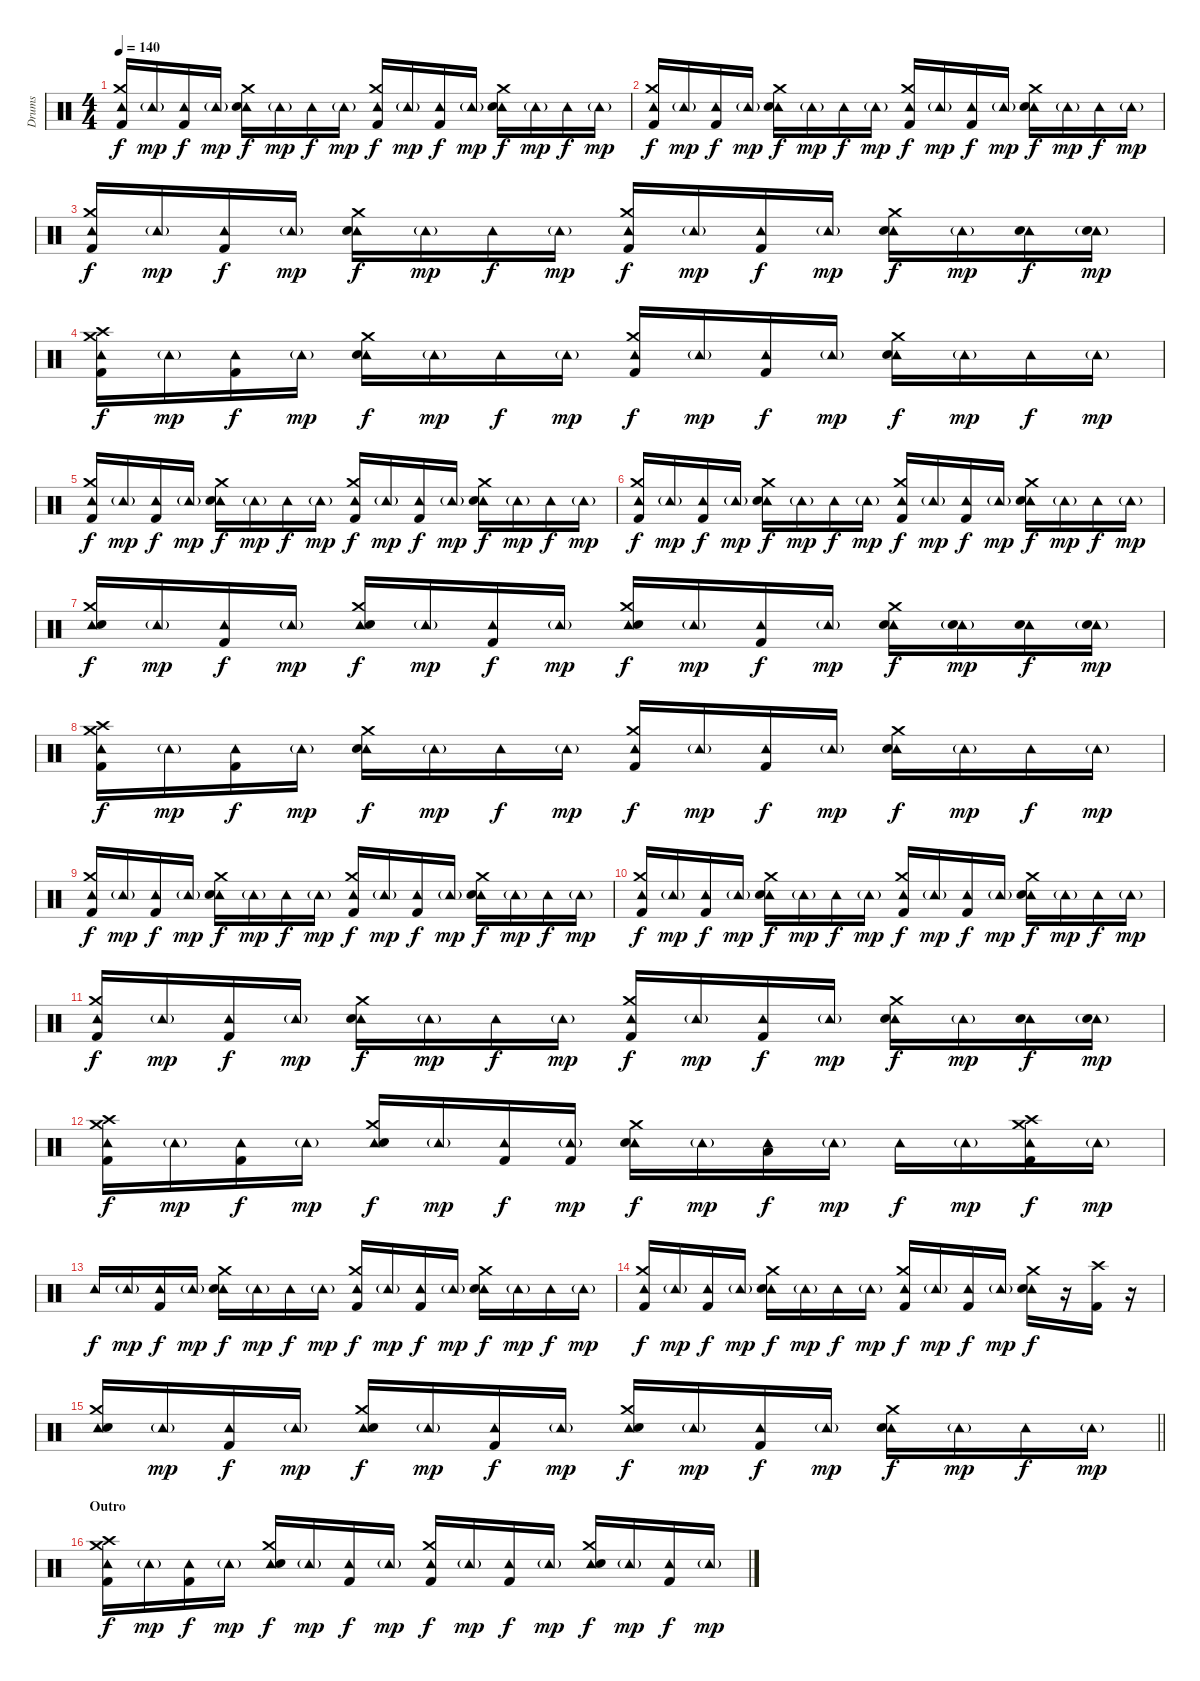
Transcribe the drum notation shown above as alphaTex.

\track ("Drums" "Drums") {instrument percussion}
\staff {score}
\articulation defaults
\ts (4 4)
\tempo 140
\clef neutral
\ks c
("Tambourine (hit)" "Crash medium (hit)" "Kick (hit) 2").16{dy f} "Tambourine (hit)"{g}.16{dy mp} ("Tambourine (hit)" "Kick (hit) 2").16{dy f} "Tambourine (hit)"{g}.16{dy mp} ("Tambourine (hit)" "Crash medium (hit)" "Electric Snare (hit)").16{dy f} "Tambourine (hit)"{g}.16{dy mp} "Tambourine (hit)".16{dy f} "Tambourine (hit)"{g}.16{dy mp} ("Tambourine (hit)" "Crash medium (hit)" "Kick (hit) 2").16{dy f} "Tambourine (hit)"{g}.16{dy mp} ("Tambourine (hit)" "Kick (hit) 2").16{dy f} "Tambourine (hit)"{g}.16{dy mp} ("Tambourine (hit)" "Crash medium (hit)" "Electric Snare (hit)").16{dy f} "Tambourine (hit)"{g}.16{dy mp} "Tambourine (hit)".16{dy f} "Tambourine (hit)"{g}.16{dy mp} |
("Tambourine (hit)" "Crash medium (hit)" "Kick (hit) 2").16{dy f} "Tambourine (hit)"{g}.16{dy mp} ("Tambourine (hit)" "Kick (hit) 2").16{dy f} "Tambourine (hit)"{g}.16{dy mp} ("Tambourine (hit)" "Crash medium (hit)" "Electric Snare (hit)").16{dy f} "Tambourine (hit)"{g}.16{dy mp} "Tambourine (hit)".16{dy f} "Tambourine (hit)"{g}.16{dy mp} ("Tambourine (hit)" "Crash medium (hit)" "Kick (hit) 2").16{dy f} "Tambourine (hit)"{g}.16{dy mp} ("Tambourine (hit)" "Kick (hit) 2").16{dy f} "Tambourine (hit)"{g}.16{dy mp} ("Tambourine (hit)" "Crash medium (hit)" "Electric Snare (hit)").16{dy f} "Tambourine (hit)"{g}.16{dy mp} "Tambourine (hit)".16{dy f} "Tambourine (hit)"{g}.16{dy mp} |
("Tambourine (hit)" "Crash medium (hit)" "Kick (hit) 2").16{dy f} "Tambourine (hit)"{g}.16{dy mp} ("Tambourine (hit)" "Kick (hit) 2").16{dy f} "Tambourine (hit)"{g}.16{dy mp} ("Tambourine (hit)" "Crash medium (hit)" "Electric Snare (hit)").16{dy f} "Tambourine (hit)"{g}.16{dy mp} "Tambourine (hit)".16{dy f} "Tambourine (hit)"{g}.16{dy mp} ("Tambourine (hit)" "Crash medium (hit)" "Kick (hit) 2").16{dy f} "Tambourine (hit)"{g}.16{dy mp} ("Tambourine (hit)" "Kick (hit) 2").16{dy f} "Tambourine (hit)"{g}.16{dy mp} ("Tambourine (hit)" "Crash medium (hit)" "Electric Snare (hit)").16{dy f} "Tambourine (hit)"{g}.16{dy mp} ("Tambourine (hit)" "Electric Snare (hit)").16{dy f} ("Tambourine (hit)"{g} "Electric Snare (hit)").16{dy mp} |
("Tambourine (hit)" "Crash high (hit)" "Crash medium (hit)" "Kick (hit) 2").16{dy f} "Tambourine (hit)"{g}.16{dy mp} ("Tambourine (hit)" "Kick (hit) 2").16{dy f} "Tambourine (hit)"{g}.16{dy mp} ("Tambourine (hit)" "Crash medium (hit)" "Electric Snare (hit)").16{dy f} "Tambourine (hit)"{g}.16{dy mp} "Tambourine (hit)".16{dy f} "Tambourine (hit)"{g}.16{dy mp} ("Tambourine (hit)" "Crash medium (hit)" "Kick (hit) 2").16{dy f} "Tambourine (hit)"{g}.16{dy mp} ("Tambourine (hit)" "Kick (hit) 2").16{dy f} "Tambourine (hit)"{g}.16{dy mp} ("Tambourine (hit)" "Crash medium (hit)" "Electric Snare (hit)").16{dy f} "Tambourine (hit)"{g}.16{dy mp} "Tambourine (hit)".16{dy f} "Tambourine (hit)"{g}.16{dy mp} |
("Tambourine (hit)" "Crash medium (hit)" "Kick (hit) 2").16{dy f} "Tambourine (hit)"{g}.16{dy mp} ("Tambourine (hit)" "Kick (hit) 2").16{dy f} "Tambourine (hit)"{g}.16{dy mp} ("Tambourine (hit)" "Crash medium (hit)" "Electric Snare (hit)").16{dy f} "Tambourine (hit)"{g}.16{dy mp} "Tambourine (hit)".16{dy f} "Tambourine (hit)"{g}.16{dy mp} ("Tambourine (hit)" "Crash medium (hit)" "Kick (hit) 2").16{dy f} "Tambourine (hit)"{g}.16{dy mp} ("Tambourine (hit)" "Kick (hit) 2").16{dy f} "Tambourine (hit)"{g}.16{dy mp} ("Tambourine (hit)" "Crash medium (hit)" "Electric Snare (hit)").16{dy f} "Tambourine (hit)"{g}.16{dy mp} "Tambourine (hit)".16{dy f} "Tambourine (hit)"{g}.16{dy mp} |
("Tambourine (hit)" "Crash medium (hit)" "Kick (hit) 2").16{dy f} "Tambourine (hit)"{g}.16{dy mp} ("Tambourine (hit)" "Kick (hit) 2").16{dy f} "Tambourine (hit)"{g}.16{dy mp} ("Tambourine (hit)" "Crash medium (hit)" "Electric Snare (hit)").16{dy f} "Tambourine (hit)"{g}.16{dy mp} "Tambourine (hit)".16{dy f} "Tambourine (hit)"{g}.16{dy mp} ("Tambourine (hit)" "Crash medium (hit)" "Kick (hit) 2").16{dy f} "Tambourine (hit)"{g}.16{dy mp} ("Tambourine (hit)" "Kick (hit) 2").16{dy f} "Tambourine (hit)"{g}.16{dy mp} ("Tambourine (hit)" "Crash medium (hit)" "Electric Snare (hit)").16{dy f} "Tambourine (hit)"{g}.16{dy mp} "Tambourine (hit)".16{dy f} "Tambourine (hit)"{g}.16{dy mp} |
("Tambourine (hit)" "Crash medium (hit)" "Electric Snare (hit)").16{dy f} "Tambourine (hit)"{g}.16{dy mp} ("Tambourine (hit)" "Kick (hit) 2").16{dy f} "Tambourine (hit)"{g}.16{dy mp} ("Tambourine (hit)" "Crash medium (hit)" "Electric Snare (hit)").16{dy f} "Tambourine (hit)"{g}.16{dy mp} ("Tambourine (hit)" "Kick (hit) 2").16{dy f} "Tambourine (hit)"{g}.16{dy mp} ("Tambourine (hit)" "Crash medium (hit)" "Electric Snare (hit)").16{dy f} "Tambourine (hit)"{g}.16{dy mp} ("Tambourine (hit)" "Kick (hit) 2").16{dy f} "Tambourine (hit)"{g}.16{dy mp} ("Tambourine (hit)" "Crash medium (hit)" "Electric Snare (hit)").16{dy f} ("Tambourine (hit)"{g} "Electric Snare (hit)").16{dy mp} ("Tambourine (hit)" "Electric Snare (hit)").16{dy f} ("Tambourine (hit)"{g} "Electric Snare (hit)").16{dy mp} |
("Tambourine (hit)" "Crash high (hit)" "Crash medium (hit)" "Kick (hit) 2").16{dy f} "Tambourine (hit)"{g}.16{dy mp} ("Tambourine (hit)" "Kick (hit) 2").16{dy f} "Tambourine (hit)"{g}.16{dy mp} ("Tambourine (hit)" "Crash medium (hit)" "Electric Snare (hit)").16{dy f} "Tambourine (hit)"{g}.16{dy mp} "Tambourine (hit)".16{dy f} "Tambourine (hit)"{g}.16{dy mp} ("Tambourine (hit)" "Crash medium (hit)" "Kick (hit) 2").16{dy f} "Tambourine (hit)"{g}.16{dy mp} ("Tambourine (hit)" "Kick (hit) 2").16{dy f} "Tambourine (hit)"{g}.16{dy mp} ("Tambourine (hit)" "Crash medium (hit)" "Electric Snare (hit)").16{dy f} "Tambourine (hit)"{g}.16{dy mp} "Tambourine (hit)".16{dy f} "Tambourine (hit)"{g}.16{dy mp} |
("Tambourine (hit)" "Crash medium (hit)" "Kick (hit) 2").16{dy f} "Tambourine (hit)"{g}.16{dy mp} ("Tambourine (hit)" "Kick (hit) 2").16{dy f} "Tambourine (hit)"{g}.16{dy mp} ("Tambourine (hit)" "Crash medium (hit)" "Electric Snare (hit)").16{dy f} "Tambourine (hit)"{g}.16{dy mp} "Tambourine (hit)".16{dy f} "Tambourine (hit)"{g}.16{dy mp} ("Tambourine (hit)" "Crash medium (hit)" "Kick (hit) 2").16{dy f} "Tambourine (hit)"{g}.16{dy mp} ("Tambourine (hit)" "Kick (hit) 2").16{dy f} "Tambourine (hit)"{g}.16{dy mp} ("Tambourine (hit)" "Crash medium (hit)" "Electric Snare (hit)").16{dy f} "Tambourine (hit)"{g}.16{dy mp} "Tambourine (hit)".16{dy f} "Tambourine (hit)"{g}.16{dy mp} |
("Tambourine (hit)" "Crash medium (hit)" "Kick (hit) 2").16{dy f} "Tambourine (hit)"{g}.16{dy mp} ("Tambourine (hit)" "Kick (hit) 2").16{dy f} "Tambourine (hit)"{g}.16{dy mp} ("Tambourine (hit)" "Crash medium (hit)" "Electric Snare (hit)").16{dy f} "Tambourine (hit)"{g}.16{dy mp} "Tambourine (hit)".16{dy f} "Tambourine (hit)"{g}.16{dy mp} ("Tambourine (hit)" "Crash medium (hit)" "Kick (hit) 2").16{dy f} "Tambourine (hit)"{g}.16{dy mp} ("Tambourine (hit)" "Kick (hit) 2").16{dy f} "Tambourine (hit)"{g}.16{dy mp} ("Tambourine (hit)" "Crash medium (hit)" "Electric Snare (hit)").16{dy f} "Tambourine (hit)"{g}.16{dy mp} "Tambourine (hit)".16{dy f} "Tambourine (hit)"{g}.16{dy mp} |
("Tambourine (hit)" "Crash medium (hit)" "Kick (hit) 2").16{dy f} "Tambourine (hit)"{g}.16{dy mp} ("Tambourine (hit)" "Kick (hit) 2").16{dy f} "Tambourine (hit)"{g}.16{dy mp} ("Tambourine (hit)" "Crash medium (hit)" "Electric Snare (hit)").16{dy f} "Tambourine (hit)"{g}.16{dy mp} "Tambourine (hit)".16{dy f} "Tambourine (hit)"{g}.16{dy mp} ("Tambourine (hit)" "Crash medium (hit)" "Kick (hit) 2").16{dy f} "Tambourine (hit)"{g}.16{dy mp} ("Tambourine (hit)" "Kick (hit) 2").16{dy f} "Tambourine (hit)"{g}.16{dy mp} ("Tambourine (hit)" "Crash medium (hit)" "Electric Snare (hit)").16{dy f} "Tambourine (hit)"{g}.16{dy mp} ("Tambourine (hit)" "Electric Snare (hit)").16{dy f} ("Tambourine (hit)"{g} "Electric Snare (hit)").16{dy mp} |
("Tambourine (hit)" "Crash high (hit)" "Crash medium (hit)" "Kick (hit) 2").16{dy f} "Tambourine (hit)"{g}.16{dy mp} ("Tambourine (hit)" "Kick (hit) 2").16{dy f} "Tambourine (hit)"{g}.16{dy mp} ("Tambourine (hit)" "Crash medium (hit)" "Electric Snare (hit)").16{dy f} "Tambourine (hit)"{g}.16{dy mp} ("Tambourine (hit)" "Kick (hit) 2").16{dy f} ("Tambourine (hit)"{g} "Kick (hit) 2").16{dy mp} ("Tambourine (hit)" "Crash medium (hit)" "Electric Snare (hit)").16{dy f} "Tambourine (hit)"{g}.16{dy mp} ("Tambourine (hit)" "Low Tom (hit)").16{dy f} "Tambourine (hit)"{g}.16{dy mp} "Tambourine (hit)".16{dy f} "Tambourine (hit)"{g}.16{dy mp} ("Tambourine (hit)" "Crash high (hit)" "Crash medium (hit)" "Kick (hit) 2").16{dy f} "Tambourine (hit)"{g}.16{dy mp} |
"Tambourine (hit)".16{dy f} "Tambourine (hit)"{g}.16{dy mp} ("Tambourine (hit)" "Kick (hit) 2").16{dy f} "Tambourine (hit)"{g}.16{dy mp} ("Tambourine (hit)" "Crash medium (hit)" "Electric Snare (hit)").16{dy f} "Tambourine (hit)"{g}.16{dy mp} "Tambourine (hit)".16{dy f} "Tambourine (hit)"{g}.16{dy mp} ("Tambourine (hit)" "Crash medium (hit)" "Kick (hit) 2").16{dy f} "Tambourine (hit)"{g}.16{dy mp} ("Tambourine (hit)" "Kick (hit) 2").16{dy f} "Tambourine (hit)"{g}.16{dy mp} ("Tambourine (hit)" "Crash medium (hit)" "Electric Snare (hit)").16{dy f} "Tambourine (hit)"{g}.16{dy mp} "Tambourine (hit)".16{dy f} "Tambourine (hit)"{g}.16{dy mp} |
("Tambourine (hit)" "Crash medium (hit)" "Kick (hit) 2").16{dy f} "Tambourine (hit)"{g}.16{dy mp} ("Tambourine (hit)" "Kick (hit) 2").16{dy f} "Tambourine (hit)"{g}.16{dy mp} ("Tambourine (hit)" "Crash medium (hit)" "Electric Snare (hit)").16{dy f} "Tambourine (hit)"{g}.16{dy mp} "Tambourine (hit)".16{dy f} "Tambourine (hit)"{g}.16{dy mp} ("Tambourine (hit)" "Crash medium (hit)" "Kick (hit) 2").16{dy f} "Tambourine (hit)"{g}.16{dy mp} ("Tambourine (hit)" "Kick (hit) 2").16{dy f} "Tambourine (hit)"{g}.16{dy mp} ("Tambourine (hit)" "Crash medium (hit)" "Electric Snare (hit)").16{dy f} r.16 ("Crash high (hit)" "Kick (hit) 2").16 r.16 |
\barLineRight lightlight
("Tambourine (hit)" "Crash medium (hit)" "Electric Snare (hit)").16 "Tambourine (hit)"{g}.16{dy mp} ("Tambourine (hit)" "Kick (hit) 2").16{dy f} "Tambourine (hit)"{g}.16{dy mp} ("Tambourine (hit)" "Crash medium (hit)" "Electric Snare (hit)").16{dy f} "Tambourine (hit)"{g}.16{dy mp} ("Tambourine (hit)" "Kick (hit) 2").16{dy f} "Tambourine (hit)"{g}.16{dy mp} ("Tambourine (hit)" "Crash medium (hit)" "Electric Snare (hit)").16{dy f} "Tambourine (hit)"{g}.16{dy mp} ("Tambourine (hit)" "Kick (hit) 2").16{dy f} "Tambourine (hit)"{g}.16{dy mp} ("Tambourine (hit)" "Crash medium (hit)" "Electric Snare (hit)").16{dy f} "Tambourine (hit)"{g}.16{dy mp} "Tambourine (hit)".16{dy f} "Tambourine (hit)"{g}.16{dy mp} |
\section ("" "Outro")
("Tambourine (hit)" "Crash high (hit)" "Crash medium (hit)" "Kick (hit) 2").16{dy f} "Tambourine (hit)"{g}.16{dy mp} ("Tambourine (hit)" "Kick (hit) 2").16{dy f} "Tambourine (hit)"{g}.16{dy mp} ("Tambourine (hit)" "Crash medium (hit)" "Electric Snare (hit)").16{dy f} "Tambourine (hit)"{g}.16{dy mp} ("Tambourine (hit)" "Kick (hit) 2").16{dy f} "Tambourine (hit)"{g}.16{dy mp} ("Tambourine (hit)" "Crash medium (hit)" "Kick (hit) 2").16{dy f} "Tambourine (hit)"{g}.16{dy mp} ("Tambourine (hit)" "Kick (hit) 2").16{dy f} "Tambourine (hit)"{g}.16{dy mp} ("Tambourine (hit)" "Crash medium (hit)" "Electric Snare (hit)").16{dy f} "Tambourine (hit)"{g}.16{dy mp} ("Tambourine (hit)" "Kick (hit) 2").16{dy f} "Tambourine (hit)"{g}.16{dy mp}
